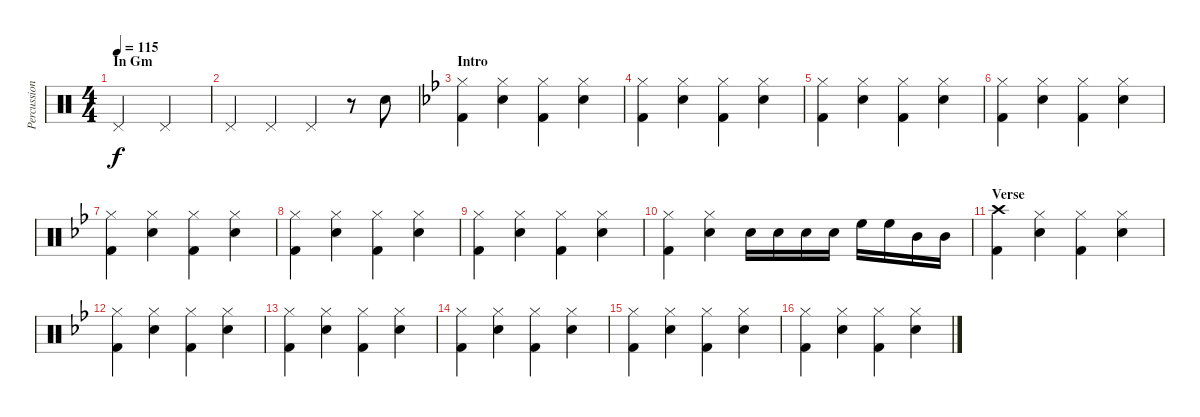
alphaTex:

\track ("Percussion" "Percussion") {instrument percussion}
\staff {score}
\articulation defaults
\ts (4 4)
\section ("" "In Gm")
\tempo 115
\clef neutral
\ks c "Pedal Hi-Hat (hit)".2{dy f} "Pedal Hi-Hat (hit)".2
|
"Pedal Hi-Hat (hit)".4 "Pedal Hi-Hat (hit)".4 "Pedal Hi-Hat (hit)".4 r.8 "Electric Snare (hit)".8 |
\section ("" "Intro")
\ks bb
("Hi-Hat (closed)" "Kick (hit) 2").4 ("Hi-Hat (closed)" "Snare (hit) 2").4 ("Hi-Hat (closed)" "Kick (hit) 2").4 ("Hi-Hat (closed)" "Snare (hit) 2").4 |
("Hi-Hat (closed)" "Kick (hit) 2").4 ("Hi-Hat (closed)" "Snare (hit) 2").4 ("Hi-Hat (closed)" "Kick (hit) 2").4 ("Hi-Hat (closed)" "Snare (hit) 2").4 |
("Hi-Hat (closed)" "Kick (hit) 2").4 ("Hi-Hat (closed)" "Snare (hit) 2").4 ("Hi-Hat (closed)" "Kick (hit) 2").4 ("Hi-Hat (closed)" "Snare (hit) 2").4 |
("Hi-Hat (closed)" "Kick (hit) 2").4 ("Hi-Hat (closed)" "Snare (hit) 2").4 ("Hi-Hat (closed)" "Kick (hit) 2").4 ("Hi-Hat (closed)" "Snare (hit) 2").4 |
("Hi-Hat (closed)" "Kick (hit) 2").4 ("Hi-Hat (closed)" "Snare (hit) 2").4 ("Hi-Hat (closed)" "Kick (hit) 2").4 ("Hi-Hat (closed)" "Snare (hit) 2").4 |
("Hi-Hat (closed)" "Kick (hit) 2").4 ("Hi-Hat (closed)" "Snare (hit) 2").4 ("Hi-Hat (closed)" "Kick (hit) 2").4 ("Hi-Hat (closed)" "Snare (hit) 2").4 |
("Hi-Hat (closed)" "Kick (hit) 2").4 ("Hi-Hat (closed)" "Snare (hit) 2").4 ("Hi-Hat (closed)" "Kick (hit) 2").4 ("Hi-Hat (closed)" "Snare (hit) 2").4 |
("Hi-Hat (closed)" "Kick (hit) 2").4 ("Hi-Hat (closed)" "Snare (hit) 2").4 "Snare (hit) 2".16 "Snare (hit) 2".16 "Snare (hit) 2".16 "Snare (hit) 2".16 "High Floor Tom (hit)".16 "High Floor Tom (hit)".16 "Mid Tom (hit)".16 "Mid Tom (hit)".16 |
\section ("" "Verse")
("Crash high (hit)" "Kick (hit) 2").4 ("Hi-Hat (closed)" "Snare (hit) 2").4 ("Hi-Hat (closed)" "Kick (hit) 2").4 ("Hi-Hat (closed)" "Snare (hit) 2").4 |
("Hi-Hat (closed)" "Kick (hit) 2").4 ("Hi-Hat (closed)" "Snare (hit) 2").4 ("Hi-Hat (closed)" "Kick (hit) 2").4 ("Hi-Hat (closed)" "Snare (hit) 2").4 |
("Hi-Hat (closed)" "Kick (hit) 2").4 ("Hi-Hat (closed)" "Snare (hit) 2").4 ("Hi-Hat (closed)" "Kick (hit) 2").4 ("Hi-Hat (closed)" "Snare (hit) 2").4 |
("Hi-Hat (closed)" "Kick (hit) 2").4 ("Hi-Hat (closed)" "Snare (hit) 2").4 ("Hi-Hat (closed)" "Kick (hit) 2").4 ("Hi-Hat (closed)" "Snare (hit) 2").4 |
("Hi-Hat (closed)" "Kick (hit) 2").4 ("Hi-Hat (closed)" "Snare (hit) 2").4 ("Hi-Hat (closed)" "Kick (hit) 2").4 ("Hi-Hat (closed)" "Snare (hit) 2").4 |
("Hi-Hat (closed)" "Kick (hit) 2").4 ("Hi-Hat (closed)" "Snare (hit) 2").4 ("Hi-Hat (closed)" "Kick (hit) 2").4 ("Hi-Hat (closed)" "Snare (hit) 2").4
